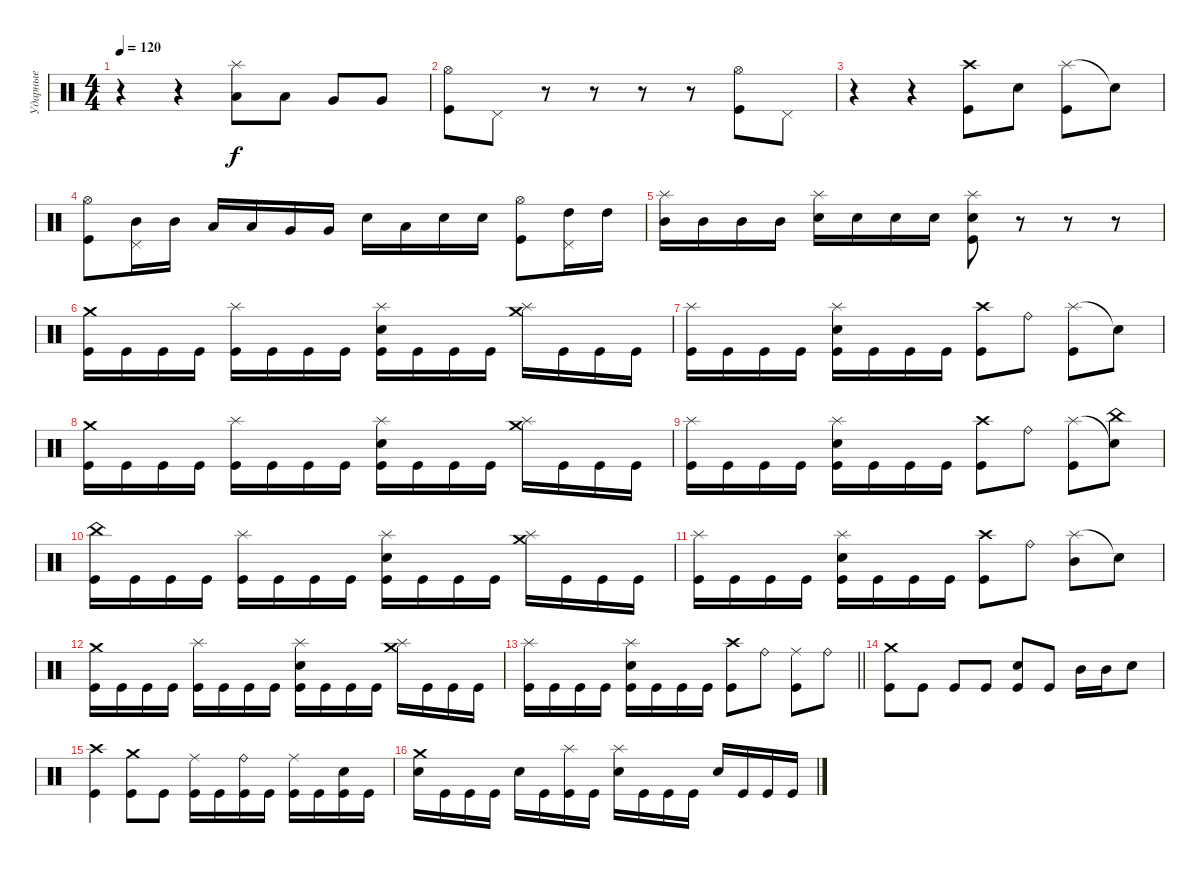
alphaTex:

\track ("Ударные" "Ударные") {instrument percussion}
\staff {score}
\articulation defaults
\ts (4 4)
\tempo 120
\clef neutral
\ks c
r.4{dy f} r.4 ("Splash (hit)" "Low Tom (hit)").8 "Low Tom (hit)".8 "Very Low Tom (hit)".8 "Very Low Tom (hit)".8 |
("Hi-Hat (open)" "Kick (hit)").8 "Pedal Hi-Hat (hit)".8 r.8 r.8 r.8 r.8 ("Hi-Hat (open)" "Kick (hit)").8 "Pedal Hi-Hat (hit)".8 |
r.4 r.4 ("Crash high (hit)" "Kick (hit)").8 "Electric Snare (hit)".8 ("Splash (hit)" "Kick (hit)").8 "Snare (hit)"{t}.8 |
("Hi-Hat (open)" "Kick (hit)").8 ("Pedal Hi-Hat (hit)" "Mid Tom (hit)").16 "Mid Tom (hit)".16 "Low Tom (hit)".16 "Low Tom (hit)".16 "Very Low Tom (hit)".16 "Very Low Tom (hit)".16 "Electric Snare (hit)".16 "Low Floor Tom (hit)".16 "Electric Snare (hit)".16 "Electric Snare (hit)".16 ("Hi-Hat (open)" "Kick (hit)").8 ("Pedal Hi-Hat (hit)" "High Tom (hit)").16 "High Tom (hit)".16 |
("Splash (hit)" "Mid Tom (hit)").16 "Mid Tom (hit)".16 "Mid Tom (hit)".16 "Mid Tom (hit)".16 ("Splash (hit)" "Electric Snare (hit)").16 "Electric Snare (hit)".16 "Electric Snare (hit)".16 "Electric Snare (hit)".16 ("Electric Snare (hit)" "Splash (hit)" "Kick (hit)").8 r.8 r.8 r.8 |
("Crash medium (hit)" "Kick (hit)").16 "Kick (hit)".16 "Kick (hit)".16 "Kick (hit)".16 ("Kick (hit)" "Splash (hit)").16 "Kick (hit)".16 "Kick (hit)".16 "Kick (hit)".16 ("Splash (hit)" "Electric Snare (hit)" "Kick (hit)").16 "Kick (hit)".16 "Kick (hit)".16 "Kick (hit)".16 ("Crash medium (hit)" "Splash (hit)").16 "Kick (hit)".16 "Kick (hit)".16 "Kick (hit)".16 |
("Kick (hit)" "Splash (hit)").16 "Kick (hit)".16 "Kick (hit)".16 "Kick (hit)".16 ("Splash (hit)" "Electric Snare (hit)" "Kick (hit)").16 "Kick (hit)".16 "Kick (hit)".16 "Kick (hit)".16 ("Crash high (hit)" "Kick (hit)").8 "Ride (bell)".8 ("Splash (hit)" "Kick (hit)").8 "Snare (hit)"{t}.8 |
("Crash medium (hit)" "Kick (hit)").16 "Kick (hit)".16 "Kick (hit)".16 "Kick (hit)".16 ("Kick (hit)" "Splash (hit)").16 "Kick (hit)".16 "Kick (hit)".16 "Kick (hit)".16 ("Splash (hit)" "Electric Snare (hit)" "Kick (hit)").16 "Kick (hit)".16 "Kick (hit)".16 "Kick (hit)".16 ("Crash medium (hit)" "Splash (hit)").16 "Kick (hit)".16 "Kick (hit)".16 "Kick (hit)".16 |
("Kick (hit)" "Splash (hit)").16 "Kick (hit)".16 "Kick (hit)".16 "Kick (hit)".16 ("Splash (hit)" "Electric Snare (hit)" "Kick (hit)").16 "Kick (hit)".16 "Kick (hit)".16 "Kick (hit)".16 ("Crash high (hit)" "Kick (hit)").8 "Ride (bell)".8 ("Splash (hit)" "Kick (hit)").8 ("Snare (hit)"{t} "China (hit)").8 |
("China (hit)" "Kick (hit)").16 "Kick (hit)".16 "Kick (hit)".16 "Kick (hit)".16 ("Kick (hit)" "Splash (hit)").16 "Kick (hit)".16 "Kick (hit)".16 "Kick (hit)".16 ("Splash (hit)" "Electric Snare (hit)" "Kick (hit)").16 "Kick (hit)".16 "Kick (hit)".16 "Kick (hit)".16 ("Crash medium (hit)" "Splash (hit)").16 "Kick (hit)".16 "Kick (hit)".16 "Kick (hit)".16 |
("Kick (hit)" "Splash (hit)").16 "Kick (hit)".16 "Kick (hit)".16 "Kick (hit)".16 ("Splash (hit)" "Electric Snare (hit)" "Kick (hit)").16 "Kick (hit)".16 "Kick (hit)".16 "Kick (hit)".16 ("Crash high (hit)" "Kick (hit)").8 "Ride (bell)".8 ("Splash (hit)" "Mid Tom (hit)").8 "Snare (hit)"{t}.8 |
("Crash medium (hit)" "Kick (hit)").16 "Kick (hit)".16 "Kick (hit)".16 "Kick (hit)".16 ("Kick (hit)" "Splash (hit)").16 "Kick (hit)".16 "Kick (hit)".16 "Kick (hit)".16 ("Splash (hit)" "Electric Snare (hit)" "Kick (hit)").16 "Kick (hit)".16 "Kick (hit)".16 "Kick (hit)".16 ("Crash medium (hit)" "Splash (hit)").16 "Kick (hit)".16 "Kick (hit)".16 "Kick (hit)".16 |
\barLineRight lightlight
("Kick (hit)" "Splash (hit)").16 "Kick (hit)".16 "Kick (hit)".16 "Kick (hit)".16 ("Splash (hit)" "Electric Snare (hit)" "Kick (hit)").16 "Kick (hit)".16 "Kick (hit)".16 "Kick (hit)".16 ("Crash high (hit)" "Kick (hit)").8 "Ride (bell)".8 ("Ride (middle)" "Kick (hit)").8 "Ride (bell)".8 |
\section ("" " ")
("Kick (hit)" "Crash medium (hit)").8 "Kick (hit)".8 "Kick (hit)".8 "Kick (hit)".8 ("Kick (hit)" "Electric Snare (hit)").8 "Kick (hit)".8 "Mid Tom (hit)".16 "Mid Tom (hit)".16 "Electric Snare (hit)".8 |
("Crash high (hit)" "Kick (hit)").4 ("Kick (hit)" "Crash medium (hit)").8 "Kick (hit)".8 ("Kick (hit)" "Ride (middle)").16 "Kick (hit)".16 ("Kick (hit)" "Ride (bell)").16 "Kick (hit)".16 ("Kick (hit)" "Ride (middle)").16 "Kick (hit)".16 ("Kick (hit)" "Electric Snare (hit)").16 "Kick (hit)".16 |
("Crash medium (hit)" "Electric Snare (hit)").16 "Kick (hit)".16 "Kick (hit)".16 "Kick (hit)".16 "Electric Snare (hit)".16 "Kick (hit)".16 ("Splash (hit)" "Kick (hit)").16 "Kick (hit)".16 ("Splash (hit)" "Electric Snare (hit)").16 "Kick (hit)".16 "Kick (hit)".16 "Kick (hit)".16 "Electric Snare (hit)".16 "Kick (hit)".16 "Kick (hit)".16 "Kick (hit)".16
